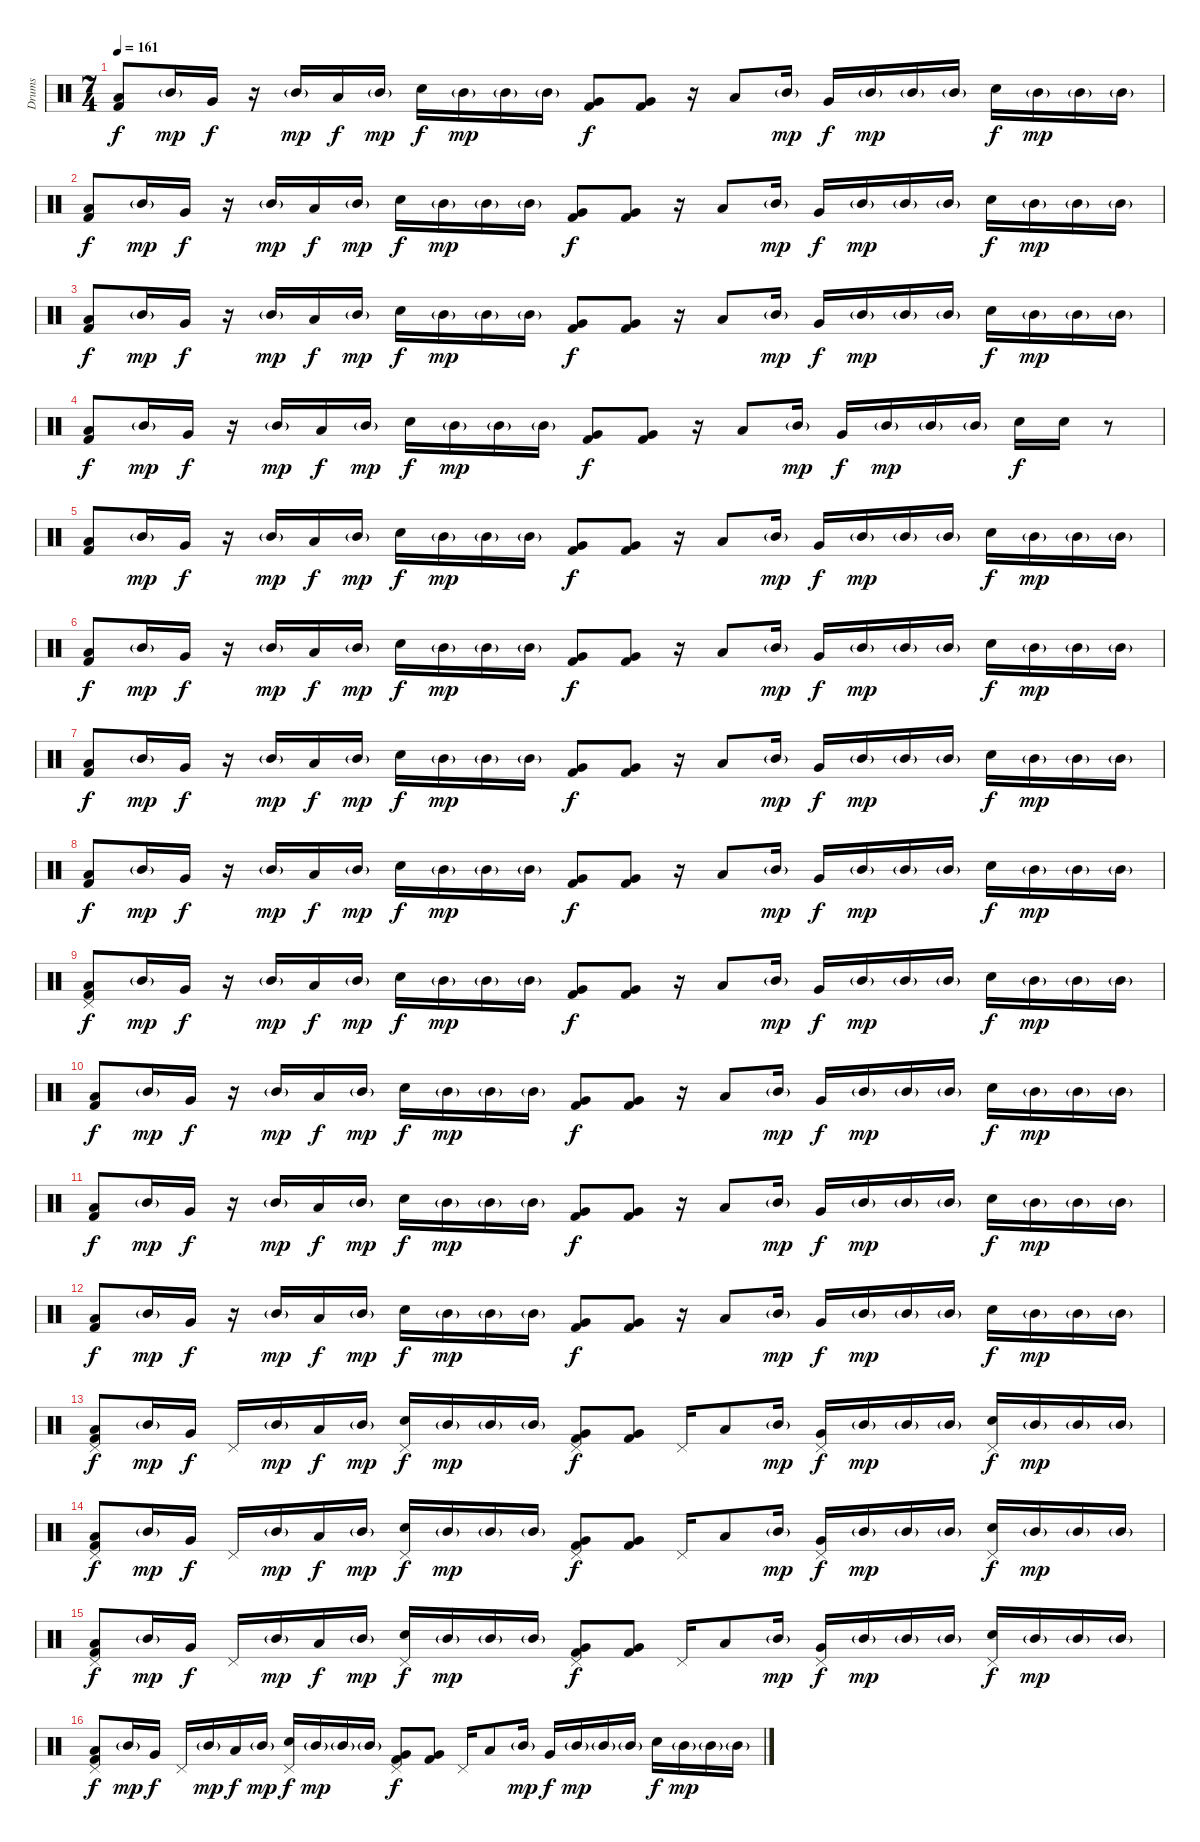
\track ("Drums" "Drums") {instrument percussion}
\staff {score}
\articulation defaults
\ts (7 4)
\tempo 161
\clef neutral
\ks c
("Low Floor Tom (hit)" "Kick (hit) 2").8{dy f} "Mid Tom (hit)"{g}.16{dy mp} "Very Low Tom (hit)".16{dy f} r.16 "Mid Tom (hit)"{g}.16{dy mp} "Low Floor Tom (hit)".16{dy f} "Mid Tom (hit)"{g}.16{dy mp} "Snare (hit) 2".16{dy f} "Mid Tom (hit)"{g}.16{dy mp} "Mid Tom (hit)"{g}.16 "Mid Tom (hit)"{g}.16 ("Very Low Tom (hit)" "Kick (hit) 2").8{dy f} ("Very Low Tom (hit)" "Kick (hit) 2").8 r.16 "Low Floor Tom (hit)".8 "Mid Tom (hit)"{g}.16{dy mp} "Very Low Tom (hit)".16{dy f} "Mid Tom (hit)"{g}.16{dy mp} "Mid Tom (hit)"{g}.16 "Mid Tom (hit)"{g}.16 "Snare (hit) 2".16{dy f} "Mid Tom (hit)"{g}.16{dy mp} "Mid Tom (hit)"{g}.16 "Mid Tom (hit)"{g}.16 |
("Low Floor Tom (hit)" "Kick (hit) 2").8{dy f} "Mid Tom (hit)"{g}.16{dy mp} "Very Low Tom (hit)".16{dy f} r.16 "Mid Tom (hit)"{g}.16{dy mp} "Low Floor Tom (hit)".16{dy f} "Mid Tom (hit)"{g}.16{dy mp} "Snare (hit) 2".16{dy f} "Mid Tom (hit)"{g}.16{dy mp} "Mid Tom (hit)"{g}.16 "Mid Tom (hit)"{g}.16 ("Very Low Tom (hit)" "Kick (hit) 2").8{dy f} ("Very Low Tom (hit)" "Kick (hit) 2").8 r.16 "Low Floor Tom (hit)".8 "Mid Tom (hit)"{g}.16{dy mp} "Very Low Tom (hit)".16{dy f} "Mid Tom (hit)"{g}.16{dy mp} "Mid Tom (hit)"{g}.16 "Mid Tom (hit)"{g}.16 "Snare (hit) 2".16{dy f} "Mid Tom (hit)"{g}.16{dy mp} "Mid Tom (hit)"{g}.16 "Mid Tom (hit)"{g}.16 |
("Low Floor Tom (hit)" "Kick (hit) 2").8{dy f} "Mid Tom (hit)"{g}.16{dy mp} "Very Low Tom (hit)".16{dy f} r.16 "Mid Tom (hit)"{g}.16{dy mp} "Low Floor Tom (hit)".16{dy f} "Mid Tom (hit)"{g}.16{dy mp} "Snare (hit) 2".16{dy f} "Mid Tom (hit)"{g}.16{dy mp} "Mid Tom (hit)"{g}.16 "Mid Tom (hit)"{g}.16 ("Very Low Tom (hit)" "Kick (hit) 2").8{dy f} ("Very Low Tom (hit)" "Kick (hit) 2").8 r.16 "Low Floor Tom (hit)".8 "Mid Tom (hit)"{g}.16{dy mp} "Very Low Tom (hit)".16{dy f} "Mid Tom (hit)"{g}.16{dy mp} "Mid Tom (hit)"{g}.16 "Mid Tom (hit)"{g}.16 "Snare (hit) 2".16{dy f} "Mid Tom (hit)"{g}.16{dy mp} "Mid Tom (hit)"{g}.16 "Mid Tom (hit)"{g}.16 |
("Low Floor Tom (hit)" "Kick (hit) 2").8{dy f} "Mid Tom (hit)"{g}.16{dy mp} "Very Low Tom (hit)".16{dy f} r.16 "Mid Tom (hit)"{g}.16{dy mp} "Low Floor Tom (hit)".16{dy f} "Mid Tom (hit)"{g}.16{dy mp} "Snare (hit) 2".16{dy f} "Mid Tom (hit)"{g}.16{dy mp} "Mid Tom (hit)"{g}.16 "Mid Tom (hit)"{g}.16 ("Very Low Tom (hit)" "Kick (hit) 2").8{dy f} ("Very Low Tom (hit)" "Kick (hit) 2").8 r.16 "Low Floor Tom (hit)".8 "Mid Tom (hit)"{g}.16{dy mp} "Very Low Tom (hit)".16{dy f} "Mid Tom (hit)"{g}.16{dy mp} "Mid Tom (hit)"{g}.16 "Mid Tom (hit)"{g}.16 "Snare (hit) 2".16{dy f} "Snare (hit) 2".16 r.8 |
("Low Floor Tom (hit)" "Kick (hit) 2").8 "Mid Tom (hit)"{g}.16{dy mp} "Very Low Tom (hit)".16{dy f} r.16 "Mid Tom (hit)"{g}.16{dy mp} "Low Floor Tom (hit)".16{dy f} "Mid Tom (hit)"{g}.16{dy mp} "Snare (hit) 2".16{dy f} "Mid Tom (hit)"{g}.16{dy mp} "Mid Tom (hit)"{g}.16 "Mid Tom (hit)"{g}.16 ("Very Low Tom (hit)" "Kick (hit) 2").8{dy f} ("Very Low Tom (hit)" "Kick (hit) 2").8 r.16 "Low Floor Tom (hit)".8 "Mid Tom (hit)"{g}.16{dy mp} "Very Low Tom (hit)".16{dy f} "Mid Tom (hit)"{g}.16{dy mp} "Mid Tom (hit)"{g}.16 "Mid Tom (hit)"{g}.16 "Snare (hit) 2".16{dy f} "Mid Tom (hit)"{g}.16{dy mp} "Mid Tom (hit)"{g}.16 "Mid Tom (hit)"{g}.16 |
("Low Floor Tom (hit)" "Kick (hit) 2").8{dy f} "Mid Tom (hit)"{g}.16{dy mp} "Very Low Tom (hit)".16{dy f} r.16 "Mid Tom (hit)"{g}.16{dy mp} "Low Floor Tom (hit)".16{dy f} "Mid Tom (hit)"{g}.16{dy mp} "Snare (hit) 2".16{dy f} "Mid Tom (hit)"{g}.16{dy mp} "Mid Tom (hit)"{g}.16 "Mid Tom (hit)"{g}.16 ("Very Low Tom (hit)" "Kick (hit) 2").8{dy f} ("Very Low Tom (hit)" "Kick (hit) 2").8 r.16 "Low Floor Tom (hit)".8 "Mid Tom (hit)"{g}.16{dy mp} "Very Low Tom (hit)".16{dy f} "Mid Tom (hit)"{g}.16{dy mp} "Mid Tom (hit)"{g}.16 "Mid Tom (hit)"{g}.16 "Snare (hit) 2".16{dy f} "Mid Tom (hit)"{g}.16{dy mp} "Mid Tom (hit)"{g}.16 "Mid Tom (hit)"{g}.16 |
("Low Floor Tom (hit)" "Kick (hit) 2").8{dy f} "Mid Tom (hit)"{g}.16{dy mp} "Very Low Tom (hit)".16{dy f} r.16 "Mid Tom (hit)"{g}.16{dy mp} "Low Floor Tom (hit)".16{dy f} "Mid Tom (hit)"{g}.16{dy mp} "Snare (hit) 2".16{dy f} "Mid Tom (hit)"{g}.16{dy mp} "Mid Tom (hit)"{g}.16 "Mid Tom (hit)"{g}.16 ("Very Low Tom (hit)" "Kick (hit) 2").8{dy f} ("Very Low Tom (hit)" "Kick (hit) 2").8 r.16 "Low Floor Tom (hit)".8 "Mid Tom (hit)"{g}.16{dy mp} "Very Low Tom (hit)".16{dy f} "Mid Tom (hit)"{g}.16{dy mp} "Mid Tom (hit)"{g}.16 "Mid Tom (hit)"{g}.16 "Snare (hit) 2".16{dy f} "Mid Tom (hit)"{g}.16{dy mp} "Mid Tom (hit)"{g}.16 "Mid Tom (hit)"{g}.16 |
("Low Floor Tom (hit)" "Kick (hit) 2").8{dy f} "Mid Tom (hit)"{g}.16{dy mp} "Very Low Tom (hit)".16{dy f} r.16 "Mid Tom (hit)"{g}.16{dy mp} "Low Floor Tom (hit)".16{dy f} "Mid Tom (hit)"{g}.16{dy mp} "Snare (hit) 2".16{dy f} "Mid Tom (hit)"{g}.16{dy mp} "Mid Tom (hit)"{g}.16 "Mid Tom (hit)"{g}.16 ("Very Low Tom (hit)" "Kick (hit) 2").8{dy f} ("Very Low Tom (hit)" "Kick (hit) 2").8 r.16 "Low Floor Tom (hit)".8 "Mid Tom (hit)"{g}.16{dy mp} "Very Low Tom (hit)".16{dy f} "Mid Tom (hit)"{g}.16{dy mp} "Mid Tom (hit)"{g}.16 "Mid Tom (hit)"{g}.16 "Snare (hit) 2".16{dy f} "Mid Tom (hit)"{g}.16{dy mp} "Mid Tom (hit)"{g}.16 "Mid Tom (hit)"{g}.16 |
("Pedal Hi-Hat (hit)" "Low Floor Tom (hit)" "Kick (hit) 2").8{dy f} "Mid Tom (hit)"{g}.16{dy mp} "Very Low Tom (hit)".16{dy f} r.16 "Mid Tom (hit)"{g}.16{dy mp} "Low Floor Tom (hit)".16{dy f} "Mid Tom (hit)"{g}.16{dy mp} "Snare (hit) 2".16{dy f} "Mid Tom (hit)"{g}.16{dy mp} "Mid Tom (hit)"{g}.16 "Mid Tom (hit)"{g}.16 ("Very Low Tom (hit)" "Kick (hit) 2").8{dy f} ("Very Low Tom (hit)" "Kick (hit) 2").8 r.16 "Low Floor Tom (hit)".8 "Mid Tom (hit)"{g}.16{dy mp} "Very Low Tom (hit)".16{dy f} "Mid Tom (hit)"{g}.16{dy mp} "Mid Tom (hit)"{g}.16 "Mid Tom (hit)"{g}.16 "Snare (hit) 2".16{dy f} "Mid Tom (hit)"{g}.16{dy mp} "Mid Tom (hit)"{g}.16 "Mid Tom (hit)"{g}.16 |
("Low Floor Tom (hit)" "Kick (hit) 2").8{dy f} "Mid Tom (hit)"{g}.16{dy mp} "Very Low Tom (hit)".16{dy f} r.16 "Mid Tom (hit)"{g}.16{dy mp} "Low Floor Tom (hit)".16{dy f} "Mid Tom (hit)"{g}.16{dy mp} "Snare (hit) 2".16{dy f} "Mid Tom (hit)"{g}.16{dy mp} "Mid Tom (hit)"{g}.16 "Mid Tom (hit)"{g}.16 ("Very Low Tom (hit)" "Kick (hit) 2").8{dy f} ("Very Low Tom (hit)" "Kick (hit) 2").8 r.16 "Low Floor Tom (hit)".8 "Mid Tom (hit)"{g}.16{dy mp} "Very Low Tom (hit)".16{dy f} "Mid Tom (hit)"{g}.16{dy mp} "Mid Tom (hit)"{g}.16 "Mid Tom (hit)"{g}.16 "Snare (hit) 2".16{dy f} "Mid Tom (hit)"{g}.16{dy mp} "Mid Tom (hit)"{g}.16 "Mid Tom (hit)"{g}.16 |
("Low Floor Tom (hit)" "Kick (hit) 2").8{dy f} "Mid Tom (hit)"{g}.16{dy mp} "Very Low Tom (hit)".16{dy f} r.16 "Mid Tom (hit)"{g}.16{dy mp} "Low Floor Tom (hit)".16{dy f} "Mid Tom (hit)"{g}.16{dy mp} "Snare (hit) 2".16{dy f} "Mid Tom (hit)"{g}.16{dy mp} "Mid Tom (hit)"{g}.16 "Mid Tom (hit)"{g}.16 ("Very Low Tom (hit)" "Kick (hit) 2").8{dy f} ("Very Low Tom (hit)" "Kick (hit) 2").8 r.16 "Low Floor Tom (hit)".8 "Mid Tom (hit)"{g}.16{dy mp} "Very Low Tom (hit)".16{dy f} "Mid Tom (hit)"{g}.16{dy mp} "Mid Tom (hit)"{g}.16 "Mid Tom (hit)"{g}.16 "Snare (hit) 2".16{dy f} "Mid Tom (hit)"{g}.16{dy mp} "Mid Tom (hit)"{g}.16 "Mid Tom (hit)"{g}.16 |
("Low Floor Tom (hit)" "Kick (hit) 2").8{dy f} "Mid Tom (hit)"{g}.16{dy mp} "Very Low Tom (hit)".16{dy f} r.16 "Mid Tom (hit)"{g}.16{dy mp} "Low Floor Tom (hit)".16{dy f} "Mid Tom (hit)"{g}.16{dy mp} "Snare (hit) 2".16{dy f} "Mid Tom (hit)"{g}.16{dy mp} "Mid Tom (hit)"{g}.16 "Mid Tom (hit)"{g}.16 ("Very Low Tom (hit)" "Kick (hit) 2").8{dy f} ("Very Low Tom (hit)" "Kick (hit) 2").8 r.16 "Low Floor Tom (hit)".8 "Mid Tom (hit)"{g}.16{dy mp} "Very Low Tom (hit)".16{dy f} "Mid Tom (hit)"{g}.16{dy mp} "Mid Tom (hit)"{g}.16 "Mid Tom (hit)"{g}.16 "Snare (hit) 2".16{dy f} "Mid Tom (hit)"{g}.16{dy mp} "Mid Tom (hit)"{g}.16 "Mid Tom (hit)"{g}.16 |
("Pedal Hi-Hat (hit)" "Low Floor Tom (hit)" "Kick (hit) 2").8{dy f} "Mid Tom (hit)"{g}.16{dy mp} "Very Low Tom (hit)".16{dy f} "Pedal Hi-Hat (hit)".16 "Mid Tom (hit)"{g}.16{dy mp} "Low Floor Tom (hit)".16{dy f} "Mid Tom (hit)"{g}.16{dy mp} ("Pedal Hi-Hat (hit)" "Snare (hit) 2").16{dy f} "Mid Tom (hit)"{g}.16{dy mp} "Mid Tom (hit)"{g}.16 "Mid Tom (hit)"{g}.16 ("Pedal Hi-Hat (hit)" "Very Low Tom (hit)" "Kick (hit) 2").8{dy f} ("Very Low Tom (hit)" "Kick (hit) 2").8 "Pedal Hi-Hat (hit)".16 "Low Floor Tom (hit)".8 "Mid Tom (hit)"{g}.16{dy mp} ("Pedal Hi-Hat (hit)" "Very Low Tom (hit)").16{dy f} "Mid Tom (hit)"{g}.16{dy mp} "Mid Tom (hit)"{g}.16 "Mid Tom (hit)"{g}.16 ("Pedal Hi-Hat (hit)" "Snare (hit) 2").16{dy f} "Mid Tom (hit)"{g}.16{dy mp} "Mid Tom (hit)"{g}.16 "Mid Tom (hit)"{g}.16 |
("Pedal Hi-Hat (hit)" "Low Floor Tom (hit)" "Kick (hit) 2").8{dy f} "Mid Tom (hit)"{g}.16{dy mp} "Very Low Tom (hit)".16{dy f} "Pedal Hi-Hat (hit)".16 "Mid Tom (hit)"{g}.16{dy mp} "Low Floor Tom (hit)".16{dy f} "Mid Tom (hit)"{g}.16{dy mp} ("Pedal Hi-Hat (hit)" "Snare (hit) 2").16{dy f} "Mid Tom (hit)"{g}.16{dy mp} "Mid Tom (hit)"{g}.16 "Mid Tom (hit)"{g}.16 ("Pedal Hi-Hat (hit)" "Very Low Tom (hit)" "Kick (hit) 2").8{dy f} ("Very Low Tom (hit)" "Kick (hit) 2").8 "Pedal Hi-Hat (hit)".16 "Low Floor Tom (hit)".8 "Mid Tom (hit)"{g}.16{dy mp} ("Pedal Hi-Hat (hit)" "Very Low Tom (hit)").16{dy f} "Mid Tom (hit)"{g}.16{dy mp} "Mid Tom (hit)"{g}.16 "Mid Tom (hit)"{g}.16 ("Pedal Hi-Hat (hit)" "Snare (hit) 2").16{dy f} "Mid Tom (hit)"{g}.16{dy mp} "Mid Tom (hit)"{g}.16 "Mid Tom (hit)"{g}.16 |
("Pedal Hi-Hat (hit)" "Low Floor Tom (hit)" "Kick (hit) 2").8{dy f} "Mid Tom (hit)"{g}.16{dy mp} "Very Low Tom (hit)".16{dy f} "Pedal Hi-Hat (hit)".16 "Mid Tom (hit)"{g}.16{dy mp} "Low Floor Tom (hit)".16{dy f} "Mid Tom (hit)"{g}.16{dy mp} ("Pedal Hi-Hat (hit)" "Snare (hit) 2").16{dy f} "Mid Tom (hit)"{g}.16{dy mp} "Mid Tom (hit)"{g}.16 "Mid Tom (hit)"{g}.16 ("Pedal Hi-Hat (hit)" "Very Low Tom (hit)" "Kick (hit) 2").8{dy f} ("Very Low Tom (hit)" "Kick (hit) 2").8 "Pedal Hi-Hat (hit)".16 "Low Floor Tom (hit)".8 "Mid Tom (hit)"{g}.16{dy mp} ("Pedal Hi-Hat (hit)" "Very Low Tom (hit)").16{dy f} "Mid Tom (hit)"{g}.16{dy mp} "Mid Tom (hit)"{g}.16 "Mid Tom (hit)"{g}.16 ("Pedal Hi-Hat (hit)" "Snare (hit) 2").16{dy f} "Mid Tom (hit)"{g}.16{dy mp} "Mid Tom (hit)"{g}.16 "Mid Tom (hit)"{g}.16 |
("Pedal Hi-Hat (hit)" "Low Floor Tom (hit)" "Kick (hit) 2").8{dy f} "Mid Tom (hit)"{g}.16{dy mp} "Very Low Tom (hit)".16{dy f} "Pedal Hi-Hat (hit)".16 "Mid Tom (hit)"{g}.16{dy mp} "Low Floor Tom (hit)".16{dy f} "Mid Tom (hit)"{g}.16{dy mp} ("Pedal Hi-Hat (hit)" "Snare (hit) 2").16{dy f} "Mid Tom (hit)"{g}.16{dy mp} "Mid Tom (hit)"{g}.16 "Mid Tom (hit)"{g}.16 ("Pedal Hi-Hat (hit)" "Very Low Tom (hit)" "Kick (hit) 2").8{dy f} ("Very Low Tom (hit)" "Kick (hit) 2").8 "Pedal Hi-Hat (hit)".16 "Low Floor Tom (hit)".8 "Mid Tom (hit)"{g}.16{dy mp} "Very Low Tom (hit)".16{dy f} "Mid Tom (hit)"{g}.16{dy mp} "Mid Tom (hit)"{g}.16 "Mid Tom (hit)"{g}.16 "Snare (hit) 2".16{dy f} "Mid Tom (hit)"{g}.16{dy mp} "Mid Tom (hit)"{g}.16 "Mid Tom (hit)"{g}.16
